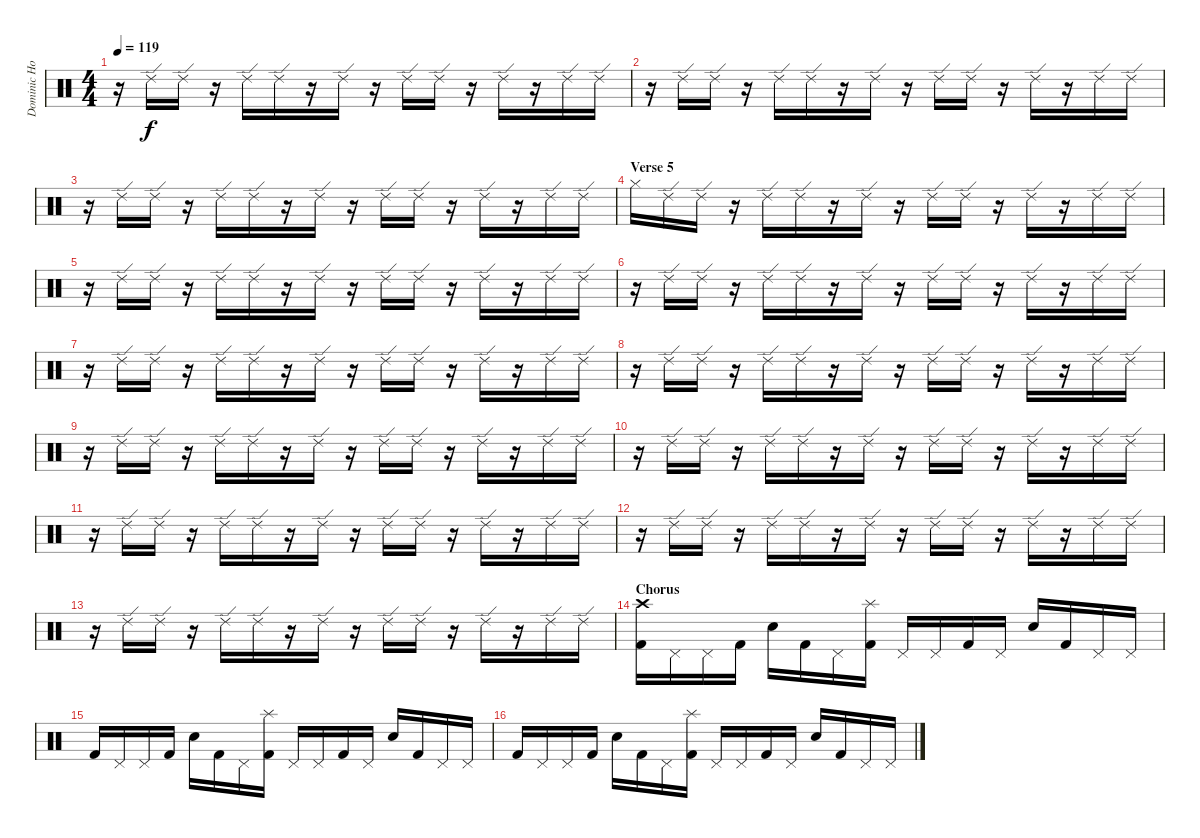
\track ("Dominic Howard" "Dominic Ho") {instrument percussion}
\staff {score}
\articulation defaults
\ts (4 4)
\tempo 119
\clef neutral
\ks c
r.16{dy f} "Ride (edge) 2".16 "Ride (edge) 2".16 r.16 "Ride (edge) 2".16 "Ride (edge) 2".16 r.16 "Ride (edge) 2".16 r.16 "Ride (edge) 2".16 "Ride (edge) 2".16 r.16 "Ride (edge) 2".16 r.16 "Ride (edge) 2".16 "Ride (edge) 2".16 |
r.16 "Ride (edge) 2".16 "Ride (edge) 2".16 r.16 "Ride (edge) 2".16 "Ride (edge) 2".16 r.16 "Ride (edge) 2".16 r.16 "Ride (edge) 2".16 "Ride (edge) 2".16 r.16 "Ride (edge) 2".16 r.16 "Ride (edge) 2".16 "Ride (edge) 2".16 |
r.16 "Ride (edge) 2".16 "Ride (edge) 2".16 r.16 "Ride (edge) 2".16 "Ride (edge) 2".16 r.16 "Ride (edge) 2".16 r.16 "Ride (edge) 2".16 "Ride (edge) 2".16 r.16 "Ride (edge) 2".16 r.16 "Ride (edge) 2".16 "Ride (edge) 2".16 |
\section ("" "Verse 5")
"Hi-Hat (closed)".16 "Ride (edge) 2".16 "Ride (edge) 2".16 r.16 "Ride (edge) 2".16 "Ride (edge) 2".16 r.16 "Ride (edge) 2".16 r.16 "Ride (edge) 2".16 "Ride (edge) 2".16 r.16 "Ride (edge) 2".16 r.16 "Ride (edge) 2".16 "Ride (edge) 2".16 |
r.16 "Ride (edge) 2".16 "Ride (edge) 2".16 r.16 "Ride (edge) 2".16 "Ride (edge) 2".16 r.16 "Ride (edge) 2".16 r.16 "Ride (edge) 2".16 "Ride (edge) 2".16 r.16 "Ride (edge) 2".16 r.16 "Ride (edge) 2".16 "Ride (edge) 2".16 |
r.16 "Ride (edge) 2".16 "Ride (edge) 2".16 r.16 "Ride (edge) 2".16 "Ride (edge) 2".16 r.16 "Ride (edge) 2".16 r.16 "Ride (edge) 2".16 "Ride (edge) 2".16 r.16 "Ride (edge) 2".16 r.16 "Ride (edge) 2".16 "Ride (edge) 2".16 |
r.16 "Ride (edge) 2".16 "Ride (edge) 2".16 r.16 "Ride (edge) 2".16 "Ride (edge) 2".16 r.16 "Ride (edge) 2".16 r.16 "Ride (edge) 2".16 "Ride (edge) 2".16 r.16 "Ride (edge) 2".16 r.16 "Ride (edge) 2".16 "Ride (edge) 2".16 |
r.16 "Ride (edge) 2".16 "Ride (edge) 2".16 r.16 "Ride (edge) 2".16 "Ride (edge) 2".16 r.16 "Ride (edge) 2".16 r.16 "Ride (edge) 2".16 "Ride (edge) 2".16 r.16 "Ride (edge) 2".16 r.16 "Ride (edge) 2".16 "Ride (edge) 2".16 |
r.16 "Ride (edge) 2".16 "Ride (edge) 2".16 r.16 "Ride (edge) 2".16 "Ride (edge) 2".16 r.16 "Ride (edge) 2".16 r.16 "Ride (edge) 2".16 "Ride (edge) 2".16 r.16 "Ride (edge) 2".16 r.16 "Ride (edge) 2".16 "Ride (edge) 2".16 |
r.16 "Ride (edge) 2".16 "Ride (edge) 2".16 r.16 "Ride (edge) 2".16 "Ride (edge) 2".16 r.16 "Ride (edge) 2".16 r.16 "Ride (edge) 2".16 "Ride (edge) 2".16 r.16 "Ride (edge) 2".16 r.16 "Ride (edge) 2".16 "Ride (edge) 2".16 |
r.16 "Ride (edge) 2".16 "Ride (edge) 2".16 r.16 "Ride (edge) 2".16 "Ride (edge) 2".16 r.16 "Ride (edge) 2".16 r.16 "Ride (edge) 2".16 "Ride (edge) 2".16 r.16 "Ride (edge) 2".16 r.16 "Ride (edge) 2".16 "Ride (edge) 2".16 |
r.16 "Ride (edge) 2".16 "Ride (edge) 2".16 r.16 "Ride (edge) 2".16 "Ride (edge) 2".16 r.16 "Ride (edge) 2".16 r.16 "Ride (edge) 2".16 "Ride (edge) 2".16 r.16 "Ride (edge) 2".16 r.16 "Ride (edge) 2".16 "Ride (edge) 2".16 |
r.16 "Ride (edge) 2".16 "Ride (edge) 2".16 r.16 "Ride (edge) 2".16 "Ride (edge) 2".16 r.16 "Ride (edge) 2".16 r.16 "Ride (edge) 2".16 "Ride (edge) 2".16 r.16 "Ride (edge) 2".16 r.16 "Ride (edge) 2".16 "Ride (edge) 2".16 |
\section ("" "Chorus")
("Kick (hit) 2" "Crash high (hit)").16 "Pedal Hi-Hat (hit)".16 "Pedal Hi-Hat (hit)".16 "Kick (hit) 2".16 "Electric Snare (hit)".16 "Kick (hit) 2".16 "Pedal Hi-Hat (hit)".16 ("Splash (hit)" "Kick (hit) 2").16 "Pedal Hi-Hat (hit)".16 "Pedal Hi-Hat (hit)".16 "Kick (hit) 2".16 "Pedal Hi-Hat (hit)".16 "Electric Snare (hit)".16 "Kick (hit) 2".16 "Pedal Hi-Hat (hit)".16 "Pedal Hi-Hat (hit)".16 |
"Kick (hit) 2".16 "Pedal Hi-Hat (hit)".16 "Pedal Hi-Hat (hit)".16 "Kick (hit) 2".16 "Electric Snare (hit)".16 "Kick (hit) 2".16 "Pedal Hi-Hat (hit)".16 ("Splash (hit)" "Kick (hit) 2").16 "Pedal Hi-Hat (hit)".16 "Pedal Hi-Hat (hit)".16 "Kick (hit) 2".16 "Pedal Hi-Hat (hit)".16 "Electric Snare (hit)".16 "Kick (hit) 2".16 "Pedal Hi-Hat (hit)".16 "Pedal Hi-Hat (hit)".16 |
"Kick (hit) 2".16 "Pedal Hi-Hat (hit)".16 "Pedal Hi-Hat (hit)".16 "Kick (hit) 2".16 "Electric Snare (hit)".16 "Kick (hit) 2".16 "Pedal Hi-Hat (hit)".16 ("Splash (hit)" "Kick (hit) 2").16 "Pedal Hi-Hat (hit)".16 "Pedal Hi-Hat (hit)".16 "Kick (hit) 2".16 "Pedal Hi-Hat (hit)".16 "Electric Snare (hit)".16 "Kick (hit) 2".16 "Pedal Hi-Hat (hit)".16 "Pedal Hi-Hat (hit)".16
